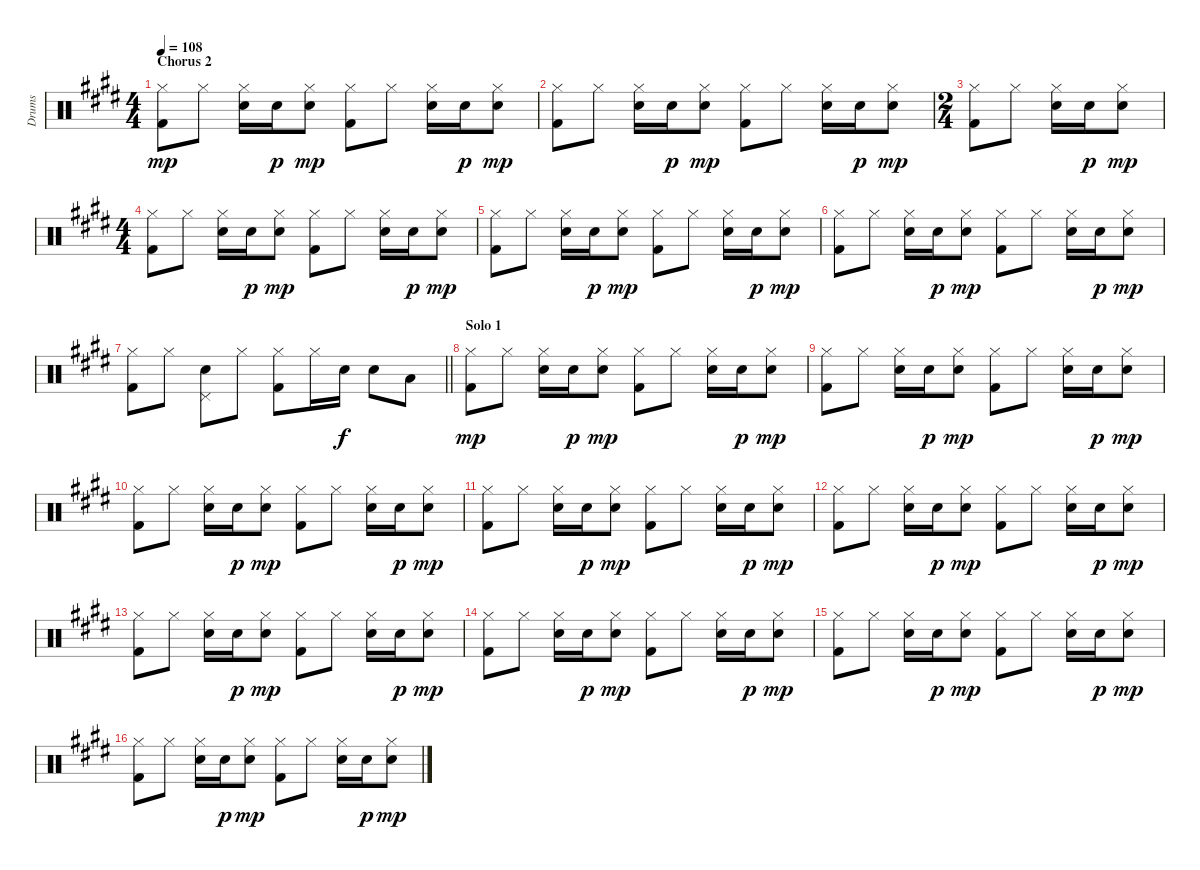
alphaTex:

\track ("Drums" "Drums") {instrument percussion bank 7}
\staff {score}
\articulation defaults
\ts (4 4)
\section ("" "Chorus 2")
\tempo 108
\clef neutral
\ks e
("Hi-Hat (closed)" "Kick (hit) 2").8{dy mp} "Hi-Hat (closed)".8 ("Electric Snare (hit)" "Hi-Hat (closed)").16 "Electric Snare (hit)".16{dy p} ("Electric Snare (hit)" "Hi-Hat (closed)").8{dy mp} ("Hi-Hat (closed)" "Kick (hit) 2").8 "Hi-Hat (closed)".8 ("Electric Snare (hit)" "Hi-Hat (closed)").16 "Electric Snare (hit)".16{dy p} ("Electric Snare (hit)" "Hi-Hat (closed)").8{dy mp} |
("Hi-Hat (closed)" "Kick (hit) 2").8 "Hi-Hat (closed)".8 ("Electric Snare (hit)" "Hi-Hat (closed)").16 "Electric Snare (hit)".16{dy p} ("Electric Snare (hit)" "Hi-Hat (closed)").8{dy mp} ("Hi-Hat (closed)" "Kick (hit) 2").8 "Hi-Hat (closed)".8 ("Electric Snare (hit)" "Hi-Hat (closed)").16 "Electric Snare (hit)".16{dy p} ("Electric Snare (hit)" "Hi-Hat (closed)").8{dy mp} |
\ts (2 4)
("Hi-Hat (closed)" "Kick (hit) 2").8 "Hi-Hat (closed)".8 ("Electric Snare (hit)" "Hi-Hat (closed)").16 "Electric Snare (hit)".16{dy p} ("Electric Snare (hit)" "Hi-Hat (closed)").8{dy mp} |
\ts (4 4)
("Hi-Hat (closed)" "Kick (hit) 2").8 "Hi-Hat (closed)".8 ("Electric Snare (hit)" "Hi-Hat (closed)").16 "Electric Snare (hit)".16{dy p} ("Electric Snare (hit)" "Hi-Hat (closed)").8{dy mp} ("Hi-Hat (closed)" "Kick (hit) 2").8 "Hi-Hat (closed)".8 ("Electric Snare (hit)" "Hi-Hat (closed)").16 "Electric Snare (hit)".16{dy p} ("Electric Snare (hit)" "Hi-Hat (closed)").8{dy mp} |
("Hi-Hat (closed)" "Kick (hit) 2").8 "Hi-Hat (closed)".8 ("Electric Snare (hit)" "Hi-Hat (closed)").16 "Electric Snare (hit)".16{dy p} ("Electric Snare (hit)" "Hi-Hat (closed)").8{dy mp} ("Hi-Hat (closed)" "Kick (hit) 2").8 "Hi-Hat (closed)".8 ("Electric Snare (hit)" "Hi-Hat (closed)").16 "Electric Snare (hit)".16{dy p} ("Electric Snare (hit)" "Hi-Hat (closed)").8{dy mp} |
("Hi-Hat (closed)" "Kick (hit) 2").8 "Hi-Hat (closed)".8 ("Electric Snare (hit)" "Hi-Hat (closed)").16 "Electric Snare (hit)".16{dy p} ("Electric Snare (hit)" "Hi-Hat (closed)").8{dy mp} ("Hi-Hat (closed)" "Kick (hit) 2").8 "Hi-Hat (closed)".8 ("Electric Snare (hit)" "Hi-Hat (closed)").16 "Electric Snare (hit)".16{dy p} ("Electric Snare (hit)" "Hi-Hat (closed)").8{dy mp} |
\barLineRight lightlight
("Hi-Hat (closed)" "Kick (hit) 2").8 "Hi-Hat (closed)".8 ("Electric Snare (hit)" "Pedal Hi-Hat (hit)").8 "Hi-Hat (closed)".8 ("Hi-Hat (closed)" "Kick (hit) 2").8 "Hi-Hat (closed)".16 "Electric Snare (hit)".16{dy f} "Electric Snare (hit)".8 "Low Tom (hit)".8 |
\section ("" "Solo 1")
("Hi-Hat (closed)" "Kick (hit) 2").8{dy mp} "Hi-Hat (closed)".8 ("Electric Snare (hit)" "Hi-Hat (closed)").16 "Electric Snare (hit)".16{dy p} ("Electric Snare (hit)" "Hi-Hat (closed)").8{dy mp} ("Hi-Hat (closed)" "Kick (hit) 2").8 "Hi-Hat (closed)".8 ("Electric Snare (hit)" "Hi-Hat (closed)").16 "Electric Snare (hit)".16{dy p} ("Electric Snare (hit)" "Hi-Hat (closed)").8{dy mp} |
("Hi-Hat (closed)" "Kick (hit) 2").8 "Hi-Hat (closed)".8 ("Electric Snare (hit)" "Hi-Hat (closed)").16 "Electric Snare (hit)".16{dy p} ("Electric Snare (hit)" "Hi-Hat (closed)").8{dy mp} ("Hi-Hat (closed)" "Kick (hit) 2").8 "Hi-Hat (closed)".8 ("Electric Snare (hit)" "Hi-Hat (closed)").16 "Electric Snare (hit)".16{dy p} ("Electric Snare (hit)" "Hi-Hat (closed)").8{dy mp} |
("Hi-Hat (closed)" "Kick (hit) 2").8 "Hi-Hat (closed)".8 ("Electric Snare (hit)" "Hi-Hat (closed)").16 "Electric Snare (hit)".16{dy p} ("Electric Snare (hit)" "Hi-Hat (closed)").8{dy mp} ("Hi-Hat (closed)" "Kick (hit) 2").8 "Hi-Hat (closed)".8 ("Electric Snare (hit)" "Hi-Hat (closed)").16 "Electric Snare (hit)".16{dy p} ("Electric Snare (hit)" "Hi-Hat (closed)").8{dy mp} |
("Hi-Hat (closed)" "Kick (hit) 2").8 "Hi-Hat (closed)".8 ("Electric Snare (hit)" "Hi-Hat (closed)").16 "Electric Snare (hit)".16{dy p} ("Electric Snare (hit)" "Hi-Hat (closed)").8{dy mp} ("Hi-Hat (closed)" "Kick (hit) 2").8 "Hi-Hat (closed)".8 ("Electric Snare (hit)" "Hi-Hat (closed)").16 "Electric Snare (hit)".16{dy p} ("Electric Snare (hit)" "Hi-Hat (closed)").8{dy mp} |
("Hi-Hat (closed)" "Kick (hit) 2").8 "Hi-Hat (closed)".8 ("Electric Snare (hit)" "Hi-Hat (closed)").16 "Electric Snare (hit)".16{dy p} ("Electric Snare (hit)" "Hi-Hat (closed)").8{dy mp} ("Hi-Hat (closed)" "Kick (hit) 2").8 "Hi-Hat (closed)".8 ("Electric Snare (hit)" "Hi-Hat (closed)").16 "Electric Snare (hit)".16{dy p} ("Electric Snare (hit)" "Hi-Hat (closed)").8{dy mp} |
("Hi-Hat (closed)" "Kick (hit) 2").8 "Hi-Hat (closed)".8 ("Electric Snare (hit)" "Hi-Hat (closed)").16 "Electric Snare (hit)".16{dy p} ("Electric Snare (hit)" "Hi-Hat (closed)").8{dy mp} ("Hi-Hat (closed)" "Kick (hit) 2").8 "Hi-Hat (closed)".8 ("Electric Snare (hit)" "Hi-Hat (closed)").16 "Electric Snare (hit)".16{dy p} ("Electric Snare (hit)" "Hi-Hat (closed)").8{dy mp} |
("Hi-Hat (closed)" "Kick (hit) 2").8 "Hi-Hat (closed)".8 ("Electric Snare (hit)" "Hi-Hat (closed)").16 "Electric Snare (hit)".16{dy p} ("Electric Snare (hit)" "Hi-Hat (closed)").8{dy mp} ("Hi-Hat (closed)" "Kick (hit) 2").8 "Hi-Hat (closed)".8 ("Electric Snare (hit)" "Hi-Hat (closed)").16 "Electric Snare (hit)".16{dy p} ("Electric Snare (hit)" "Hi-Hat (closed)").8{dy mp} |
("Hi-Hat (closed)" "Kick (hit) 2").8 "Hi-Hat (closed)".8 ("Electric Snare (hit)" "Hi-Hat (closed)").16 "Electric Snare (hit)".16{dy p} ("Electric Snare (hit)" "Hi-Hat (closed)").8{dy mp} ("Hi-Hat (closed)" "Kick (hit) 2").8 "Hi-Hat (closed)".8 ("Electric Snare (hit)" "Hi-Hat (closed)").16 "Electric Snare (hit)".16{dy p} ("Electric Snare (hit)" "Hi-Hat (closed)").8{dy mp} |
("Hi-Hat (closed)" "Kick (hit) 2").8 "Hi-Hat (closed)".8 ("Electric Snare (hit)" "Hi-Hat (closed)").16 "Electric Snare (hit)".16{dy p} ("Electric Snare (hit)" "Hi-Hat (closed)").8{dy mp} ("Hi-Hat (closed)" "Kick (hit) 2").8 "Hi-Hat (closed)".8 ("Electric Snare (hit)" "Hi-Hat (closed)").16 "Electric Snare (hit)".16{dy p} ("Electric Snare (hit)" "Hi-Hat (closed)").8{dy mp}
